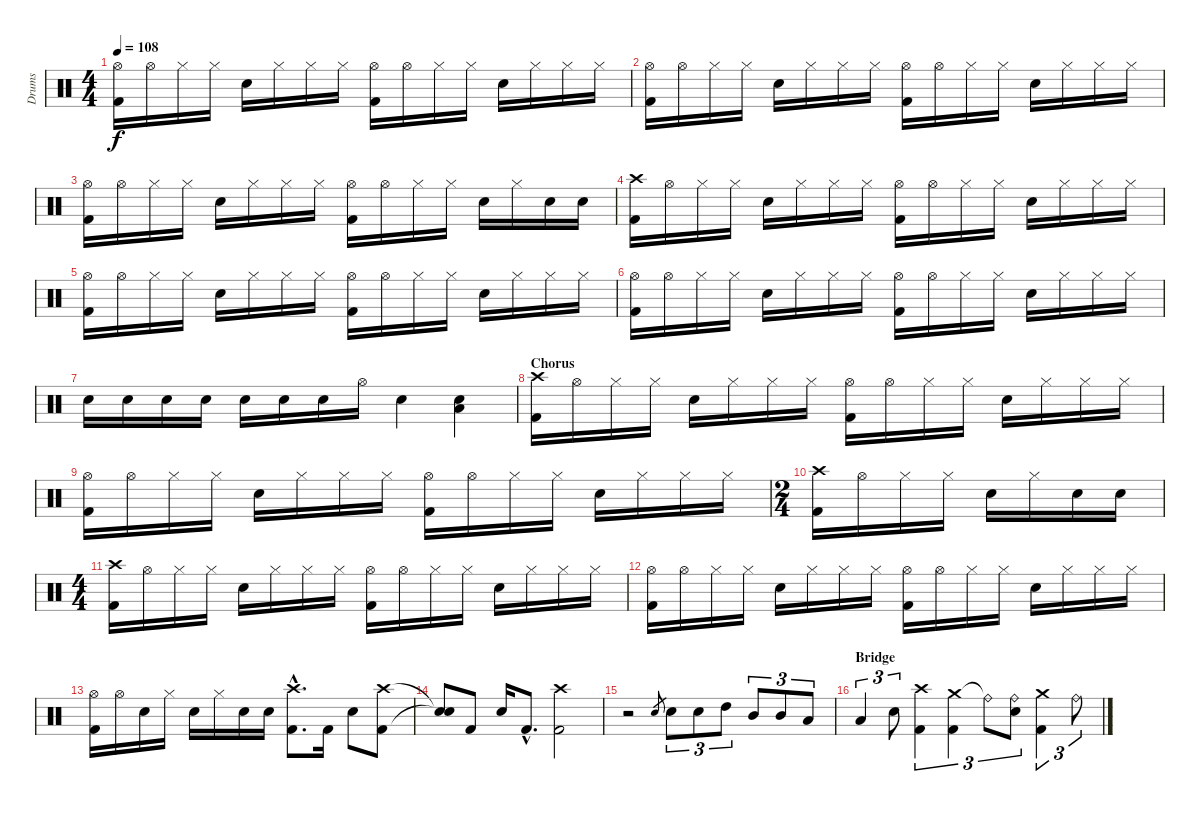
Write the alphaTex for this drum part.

\track ("Drums" "Drums") {instrument percussion}
\staff {score}
\articulation defaults
\ts (4 4)
\tempo 108
\clef neutral
\ks c
("Hi-Hat (open)" "Kick (hit) 2").16{dy f} "Hi-Hat (open)".16 "Hi-Hat (closed)".16 "Hi-Hat (closed)".16 "Electric Snare (hit)".16 "Hi-Hat (closed)".16 "Hi-Hat (closed)".16 "Hi-Hat (closed)".16 ("Hi-Hat (open)" "Kick (hit) 2").16 "Hi-Hat (open)".16 "Hi-Hat (closed)".16 "Hi-Hat (closed)".16 "Electric Snare (hit)".16 "Hi-Hat (closed)".16 "Hi-Hat (closed)".16 "Hi-Hat (closed)".16 |
("Hi-Hat (open)" "Kick (hit) 2").16 "Hi-Hat (open)".16 "Hi-Hat (closed)".16 "Hi-Hat (closed)".16 "Electric Snare (hit)".16 "Hi-Hat (closed)".16 "Hi-Hat (closed)".16 "Hi-Hat (closed)".16 ("Hi-Hat (open)" "Kick (hit) 2").16 "Hi-Hat (open)".16 "Hi-Hat (closed)".16 "Hi-Hat (closed)".16 "Electric Snare (hit)".16 "Hi-Hat (closed)".16 "Hi-Hat (closed)".16 "Hi-Hat (closed)".16 |
("Hi-Hat (open)" "Kick (hit) 2").16 "Hi-Hat (open)".16 "Hi-Hat (closed)".16 "Hi-Hat (closed)".16 "Electric Snare (hit)".16 "Hi-Hat (closed)".16 "Hi-Hat (closed)".16 "Hi-Hat (closed)".16 ("Hi-Hat (open)" "Kick (hit) 2").16 "Hi-Hat (open)".16 "Hi-Hat (closed)".16 "Hi-Hat (closed)".16 "Electric Snare (hit)".16 "Hi-Hat (closed)".16 "Electric Snare (hit)".16 "Electric Snare (hit)".16 |
("Crash high (hit)" "Kick (hit) 2").16 "Hi-Hat (open)".16 "Hi-Hat (closed)".16 "Hi-Hat (closed)".16 "Electric Snare (hit)".16 "Hi-Hat (closed)".16 "Hi-Hat (closed)".16 "Hi-Hat (closed)".16 ("Hi-Hat (open)" "Kick (hit) 2").16 "Hi-Hat (open)".16 "Hi-Hat (closed)".16 "Hi-Hat (closed)".16 "Electric Snare (hit)".16 "Hi-Hat (closed)".16 "Hi-Hat (closed)".16 "Hi-Hat (closed)".16 |
("Hi-Hat (open)" "Kick (hit) 2").16 "Hi-Hat (open)".16 "Hi-Hat (closed)".16 "Hi-Hat (closed)".16 "Electric Snare (hit)".16 "Hi-Hat (closed)".16 "Hi-Hat (closed)".16 "Hi-Hat (closed)".16 ("Hi-Hat (open)" "Kick (hit) 2").16 "Hi-Hat (open)".16 "Hi-Hat (closed)".16 "Hi-Hat (closed)".16 "Electric Snare (hit)".16 "Hi-Hat (closed)".16 "Hi-Hat (closed)".16 "Hi-Hat (closed)".16 |
("Hi-Hat (open)" "Kick (hit) 2").16 "Hi-Hat (open)".16 "Hi-Hat (closed)".16 "Hi-Hat (closed)".16 "Electric Snare (hit)".16 "Hi-Hat (closed)".16 "Hi-Hat (closed)".16 "Hi-Hat (closed)".16 ("Hi-Hat (open)" "Kick (hit) 2").16 "Hi-Hat (open)".16 "Hi-Hat (closed)".16 "Hi-Hat (closed)".16 "Electric Snare (hit)".16 "Hi-Hat (closed)".16 "Hi-Hat (closed)".16 "Hi-Hat (closed)".16 |
"Electric Snare (hit)".16 "Electric Snare (hit)".16 "Electric Snare (hit)".16 "Electric Snare (hit)".16 "Electric Snare (hit)".16 "Electric Snare (hit)".16 "Electric Snare (hit)".16 "Hi-Hat (open)".16 "Electric Snare (hit)".4 ("Low Floor Tom (hit)" "Electric Snare (hit)").4 |
\section ("" "Chorus")
("Crash high (hit)" "Kick (hit) 2").16 "Hi-Hat (open)".16 "Hi-Hat (closed)".16 "Hi-Hat (closed)".16 "Electric Snare (hit)".16 "Hi-Hat (closed)".16 "Hi-Hat (closed)".16 "Hi-Hat (closed)".16 ("Hi-Hat (open)" "Kick (hit) 2").16 "Hi-Hat (open)".16 "Hi-Hat (closed)".16 "Hi-Hat (closed)".16 "Electric Snare (hit)".16 "Hi-Hat (closed)".16 "Hi-Hat (closed)".16 "Hi-Hat (closed)".16 |
("Hi-Hat (open)" "Kick (hit) 2").16 "Hi-Hat (open)".16 "Hi-Hat (closed)".16 "Hi-Hat (closed)".16 "Electric Snare (hit)".16 "Hi-Hat (closed)".16 "Hi-Hat (closed)".16 "Hi-Hat (closed)".16 ("Hi-Hat (open)" "Kick (hit) 2").16 "Hi-Hat (open)".16 "Hi-Hat (closed)".16 "Hi-Hat (closed)".16 "Electric Snare (hit)".16 "Hi-Hat (closed)".16 "Hi-Hat (closed)".16 "Hi-Hat (closed)".16 |
\ts (2 4)
("Crash high (hit)" "Kick (hit) 2").16 "Hi-Hat (open)".16 "Hi-Hat (closed)".16 "Hi-Hat (closed)".16 "Electric Snare (hit)".16 "Hi-Hat (closed)".16 "Electric Snare (hit)".16 "Electric Snare (hit)".16 |
\ts (4 4)
("Crash high (hit)" "Kick (hit) 2").16 "Hi-Hat (open)".16 "Hi-Hat (closed)".16 "Hi-Hat (closed)".16 "Electric Snare (hit)".16 "Hi-Hat (closed)".16 "Hi-Hat (closed)".16 "Hi-Hat (closed)".16 ("Hi-Hat (open)" "Kick (hit) 2").16 "Hi-Hat (open)".16 "Hi-Hat (closed)".16 "Hi-Hat (closed)".16 "Electric Snare (hit)".16 "Hi-Hat (closed)".16 "Hi-Hat (closed)".16 "Hi-Hat (closed)".16 |
("Hi-Hat (open)" "Kick (hit) 2").16 "Hi-Hat (open)".16 "Hi-Hat (closed)".16 "Hi-Hat (closed)".16 "Electric Snare (hit)".16 "Hi-Hat (closed)".16 "Hi-Hat (closed)".16 "Hi-Hat (closed)".16 ("Hi-Hat (open)" "Kick (hit) 2").16 "Hi-Hat (open)".16 "Hi-Hat (closed)".16 "Hi-Hat (closed)".16 "Electric Snare (hit)".16 "Hi-Hat (closed)".16 "Hi-Hat (closed)".16 "Hi-Hat (closed)".16 |
("Hi-Hat (open)" "Kick (hit) 2").16 "Hi-Hat (open)".16 "Electric Snare (hit)".16 "Hi-Hat (closed)".16 "Electric Snare (hit)".16 "Hi-Hat (closed)".16 "Electric Snare (hit)".16 "Electric Snare (hit)".16 ("Crash high (hit)"{hac} "Kick (hit) 2"{hac}).8{d} "Kick (hit) 2".16 "Electric Snare (hit)".8 ("Crash high (hit)" "Kick (hit) 2").8 |
("Snare (hit)"{t} "Snare (hit)"{t}).8 "Kick (hit) 2".8 "Electric Snare (hit)".16 "Kick (hit) 2"{hac}.8{d} ("Crash high (hit)" "Kick (hit) 2").2 |
r.2 "Electric Snare (hit)".8{gr} "Electric Snare (hit)".8{tu (3 2)} "Electric Snare (hit)".8{tu (3 2)} "High Tom (hit)".8{tu (3 2)} "Mid Tom (hit)".8{tu (3 2)} "Mid Tom (hit)".8{tu (3 2)} "Low Tom (hit)".8{tu (3 2)} |
\section ("" "Bridge")
"Low Floor Tom (hit)".4{tu (3 2)} "Electric Snare (hit)".8{tu (3 2)} ("Crash high (hit)" "Kick (hit) 2").4{tu (3 2)} ("Crash medium (hit)" "Kick (hit) 2").4{tu (3 2)} "Ride (bell)"{t}.8{tu (3 2)} ("Ride (bell)" "Electric Snare (hit)").8{tu (3 2)} ("Crash medium (hit)" "Kick (hit) 2").4{tu (3 2)} "Ride (bell)".8{tu (3 2)}
